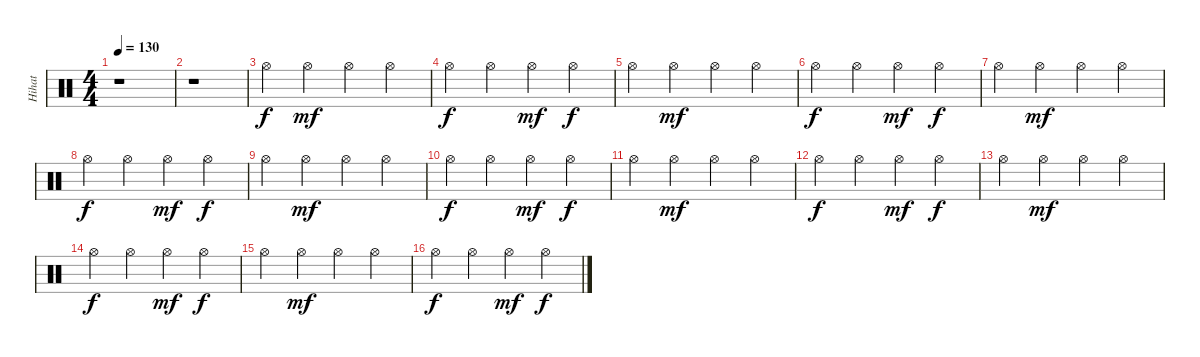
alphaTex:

\track ("Hihat" "Hihat") {instrument percussion}
\staff {score}
\articulation defaults
\ts (4 4)
\tempo 130
\clef neutral
\ks c
r.1{dy f} |
r.1 |
"Hi-Hat (open)".4 "Hi-Hat (open)".4{dy mf} "Hi-Hat (open)".4 "Hi-Hat (open)".4 |
"Hi-Hat (open)".4{dy f} "Hi-Hat (open)".4 "Hi-Hat (open)".4{dy mf} "Hi-Hat (open)".4{dy f} |
"Hi-Hat (open)".4 "Hi-Hat (open)".4{dy mf} "Hi-Hat (open)".4 "Hi-Hat (open)".4 |
"Hi-Hat (open)".4{dy f} "Hi-Hat (open)".4 "Hi-Hat (open)".4{dy mf} "Hi-Hat (open)".4{dy f} |
"Hi-Hat (open)".4 "Hi-Hat (open)".4{dy mf} "Hi-Hat (open)".4 "Hi-Hat (open)".4 |
"Hi-Hat (open)".4{dy f} "Hi-Hat (open)".4 "Hi-Hat (open)".4{dy mf} "Hi-Hat (open)".4{dy f} |
"Hi-Hat (open)".4 "Hi-Hat (open)".4{dy mf} "Hi-Hat (open)".4 "Hi-Hat (open)".4 |
"Hi-Hat (open)".4{dy f} "Hi-Hat (open)".4 "Hi-Hat (open)".4{dy mf} "Hi-Hat (open)".4{dy f} |
"Hi-Hat (open)".4 "Hi-Hat (open)".4{dy mf} "Hi-Hat (open)".4 "Hi-Hat (open)".4 |
"Hi-Hat (open)".4{dy f} "Hi-Hat (open)".4 "Hi-Hat (open)".4{dy mf} "Hi-Hat (open)".4{dy f} |
"Hi-Hat (open)".4 "Hi-Hat (open)".4{dy mf} "Hi-Hat (open)".4 "Hi-Hat (open)".4 |
"Hi-Hat (open)".4{dy f} "Hi-Hat (open)".4 "Hi-Hat (open)".4{dy mf} "Hi-Hat (open)".4{dy f} |
"Hi-Hat (open)".4 "Hi-Hat (open)".4{dy mf} "Hi-Hat (open)".4 "Hi-Hat (open)".4 |
"Hi-Hat (open)".4{dy f} "Hi-Hat (open)".4 "Hi-Hat (open)".4{dy mf} "Hi-Hat (open)".4{dy f}
